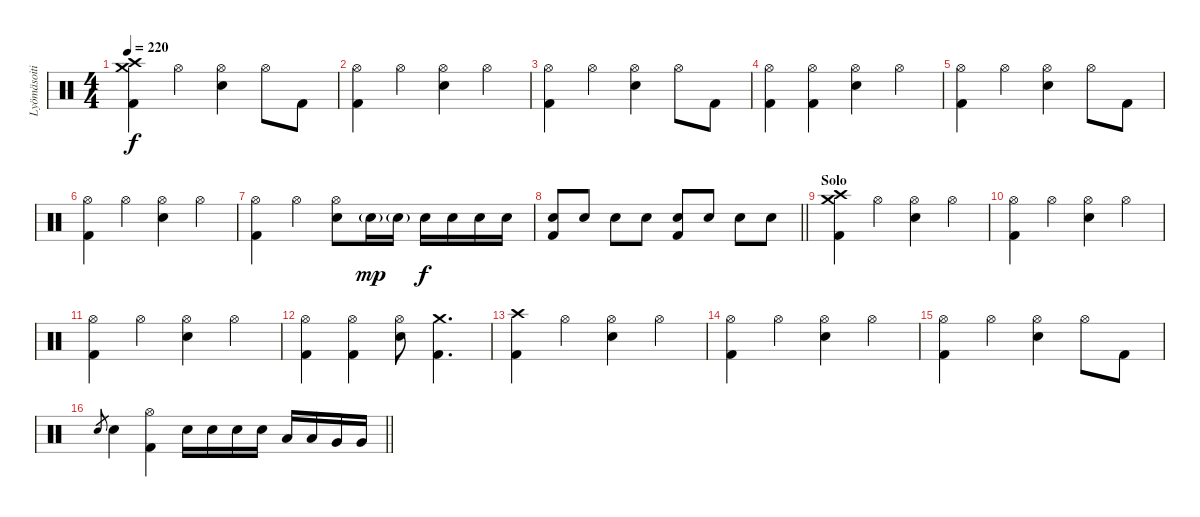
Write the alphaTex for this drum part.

\track ("Lyömäsoitin" "Lyömäsoiti") {instrument percussion}
\staff {score}
\articulation defaults
\ts (4 4)
\tempo 220
\clef neutral
\ks c
("Crash medium (hit)" "Crash high (hit)" "Kick (hit) 2").4{dy f} "Hi-Hat (open)".4 ("Hi-Hat (open)" "Electric Snare (hit)").4 "Hi-Hat (open)".8 "Kick (hit) 2".8 |
("Hi-Hat (open)" "Kick (hit) 2").4 "Hi-Hat (open)".4 ("Hi-Hat (open)" "Electric Snare (hit)").4 "Hi-Hat (open)".4 |
("Hi-Hat (open)" "Kick (hit) 2").4 "Hi-Hat (open)".4 ("Hi-Hat (open)" "Electric Snare (hit)").4 "Hi-Hat (open)".8 "Kick (hit) 2".8 |
("Hi-Hat (open)" "Kick (hit) 2").4 ("Hi-Hat (open)" "Kick (hit) 2").4 ("Hi-Hat (open)" "Electric Snare (hit)").4 "Hi-Hat (open)".4 |
("Hi-Hat (open)" "Kick (hit) 2").4 "Hi-Hat (open)".4 ("Hi-Hat (open)" "Electric Snare (hit)").4 "Hi-Hat (open)".8 "Kick (hit) 2".8 |
("Hi-Hat (open)" "Kick (hit) 2").4 "Hi-Hat (open)".4 ("Hi-Hat (open)" "Electric Snare (hit)").4 "Hi-Hat (open)".4 |
("Hi-Hat (open)" "Kick (hit) 2").4 "Hi-Hat (open)".4 ("Hi-Hat (open)" "Electric Snare (hit)").8 "Electric Snare (hit)"{g}.16{dy mp} "Electric Snare (hit)"{g}.16 "Electric Snare (hit)".16{dy f} "Electric Snare (hit)".16 "Electric Snare (hit)".16 "Electric Snare (hit)".16 |
\barLineRight lightlight
("Electric Snare (hit)" "Kick (hit) 2").8 "Electric Snare (hit)".8 "Electric Snare (hit)".8 "Electric Snare (hit)".8 ("Electric Snare (hit)" "Kick (hit) 2").8 "Electric Snare (hit)".8 "Electric Snare (hit)".8 "Electric Snare (hit)".8 |
\section ("" "Solo")
("Crash medium (hit)" "Crash high (hit)" "Kick (hit) 2").4 "Hi-Hat (open)".4 ("Hi-Hat (open)" "Electric Snare (hit)").4 "Hi-Hat (open)".4 |
("Hi-Hat (open)" "Kick (hit) 2").4 "Hi-Hat (open)".4 ("Hi-Hat (open)" "Electric Snare (hit)").4 "Hi-Hat (open)".4 |
("Hi-Hat (open)" "Kick (hit) 2").4 "Hi-Hat (open)".4 ("Hi-Hat (open)" "Electric Snare (hit)").4 "Hi-Hat (open)".4 |
("Hi-Hat (open)" "Kick (hit) 2").4 ("Hi-Hat (open)" "Kick (hit) 2").4 ("Hi-Hat (open)" "Electric Snare (hit)").8 ("Crash medium (hit)" "Kick (hit) 2").4{d} |
("Crash high (hit)" "Kick (hit) 2").4 "Hi-Hat (open)".4 ("Hi-Hat (open)" "Electric Snare (hit)").4 "Hi-Hat (open)".4 |
("Hi-Hat (open)" "Kick (hit) 2").4 "Hi-Hat (open)".4 ("Hi-Hat (open)" "Electric Snare (hit)").4 "Hi-Hat (open)".4 |
("Hi-Hat (open)" "Kick (hit) 2").4 "Hi-Hat (open)".4 ("Hi-Hat (open)" "Electric Snare (hit)").4 "Hi-Hat (open)".8 "Kick (hit) 2".8 |
\barLineRight lightlight "Electric Snare (hit)".8{gr} "Electric Snare (hit)".4
("Hi-Hat (open)" "Kick (hit) 2").4 "Electric Snare (hit)".16 "Electric Snare (hit)".16 "Electric Snare (hit)".16 "Electric Snare (hit)".16 "Low Tom (hit)".16 "Low Tom (hit)".16 "Very Low Tom (hit)".16 "Very Low Tom (hit)".16
